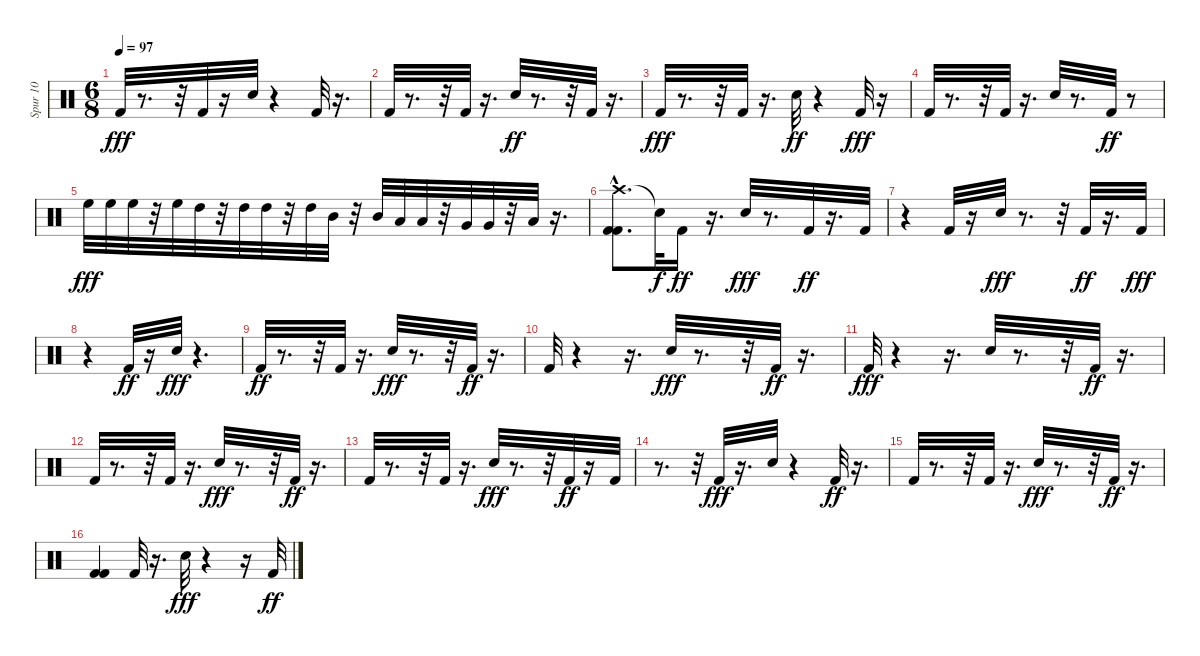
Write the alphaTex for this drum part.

\track ("Spur 10" "Spur 10") {instrument percussion}
\staff {score}
\articulation defaults
\ts (6 8)
\tempo 97
\clef neutral
\ks c "Kick (hit) 2".32{dy fff}
r.8{d} r.32 "Kick (hit) 2".32 r.16 "Electric Snare (hit)".32 r.4 "Kick (hit) 2".32 r.16{d} |
"Kick (hit) 2".32 r.8{d} r.32 "Kick (hit) 2".32 r.16{d} "Electric Snare (hit)".32{dy ff} r.8{d} r.32 "Kick (hit) 2".32 r.16{d} |
"Kick (hit) 2".32{dy fff} r.8{d} r.32 "Kick (hit) 2".32 r.16{d} "Electric Snare (hit)".32{dy ff} r.4 "Kick (hit) 2".32{dy fff} r.16 |
"Kick (hit) 2".32 r.8{d} r.32 "Kick (hit) 2".32 r.16{d} "Electric Snare (hit)".32 r.8{d} "Kick (hit) 2".32{dy ff} r.8 |
"High Floor Tom (hit)".32{dy fff} "High Floor Tom (hit)".32 "High Floor Tom (hit)".32 r.32 "High Floor Tom (hit)".32 "High Tom (hit)".32 r.32 "High Tom (hit)".32 "High Tom (hit)".32 r.32 "High Tom (hit)".32 "Mid Tom (hit)".32 r.32 "Mid Tom (hit)".32 "Low Tom (hit)".32 "Low Tom (hit)".32 r.32 "Very Low Tom (hit)".32 "Very Low Tom (hit)".32 r.32 "Low Floor Tom (hit)".32 r.16{d} |
("Crash high (hit)" "Kick (hit) 2"{hac} "Kick (hit) 2").8{d} "Snare (hit)"{t}.32{dy f} "Kick (hit) 2".16{dy ff} r.16{d} "Electric Snare (hit)".32{dy fff} r.8{d} "Kick (hit) 2".32{dy ff} r.16{d} "Kick (hit) 2".32 |
r.4 "Kick (hit) 2".32 r.16 "Electric Snare (hit)".32{dy fff} r.8{d} r.32 "Kick (hit) 2".32{dy ff} r.16{d} "Kick (hit) 2".32{dy fff} |
r.4 "Kick (hit) 2".32{dy ff} r.16 "Electric Snare (hit)".32{dy fff} r.4{d} |
"Kick (hit) 2".32{dy ff} r.8{d} r.32 "Kick (hit) 2".32 r.16{d} "Electric Snare (hit)".32{dy fff} r.8{d} r.32 "Kick (hit) 2".32{dy ff} r.16{d} |
"Kick (hit) 2".32 r.4 r.16{d} "Electric Snare (hit)".32{dy fff} r.8{d} r.32 "Kick (hit) 2".32{dy ff} r.16{d} |
"Kick (hit) 2".32{dy fff} r.4 r.16{d} "Electric Snare (hit)".32 r.8{d} r.32 "Kick (hit) 2".32{dy ff} r.16{d} |
"Kick (hit) 2".32 r.8{d} r.32 "Kick (hit) 2".32 r.16{d} "Electric Snare (hit)".32{dy fff} r.8{d} r.32 "Kick (hit) 2".32{dy ff} r.16{d} |
"Kick (hit) 2".32 r.8{d} r.32 "Kick (hit) 2".32 r.16{d} "Electric Snare (hit)".32{dy fff} r.8{d} r.32 "Kick (hit) 2".32{dy ff} r.16 "Kick (hit) 2".32 |
r.8{d} r.32 "Kick (hit) 2".32{dy fff} r.16{d} "Electric Snare (hit)".32 r.4 "Kick (hit) 2".32{dy ff} r.16{d} |
"Kick (hit) 2".32 r.8{d} r.32 "Kick (hit) 2".32 r.16{d} "Electric Snare (hit)".32{dy fff} r.8{d} r.32 "Kick (hit) 2".32{dy ff} r.16{d} |
("Kick (hit) 2" "Kick (hit) 2").4 "Kick (hit) 2".32 r.16{d} "Electric Snare (hit)".32{dy fff} r.4 r.16 "Kick (hit) 2".32{dy ff}
